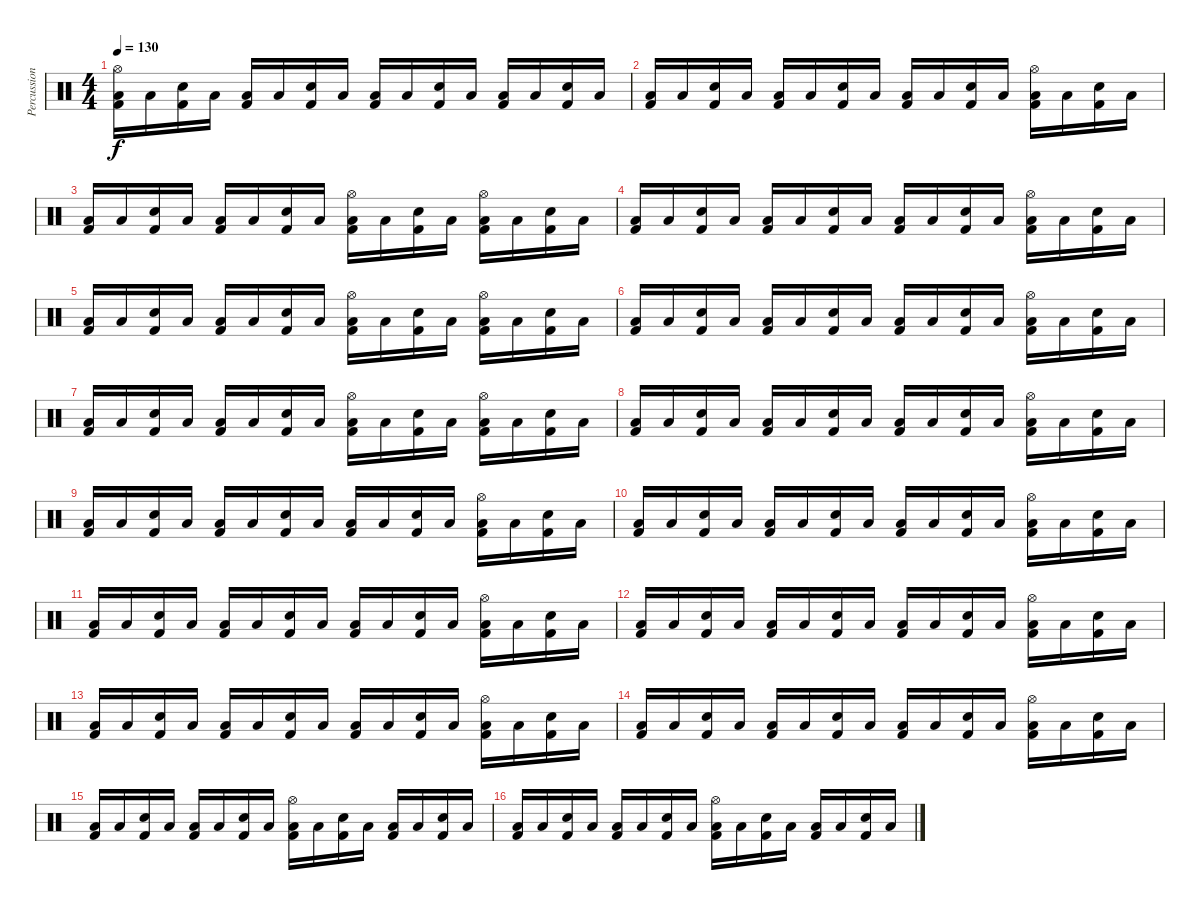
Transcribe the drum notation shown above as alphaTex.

\track ("Percussion" "Percussion") {instrument percussion}
\staff {score}
\articulation defaults
\ts (4 4)
\tempo 130
\clef neutral
\ks c
("Low Tom (hit)" "Kick (hit) 2" "Hi-Hat (open)").16{dy f} "Low Tom (hit)".16 ("Snare (hit) 2" "Kick (hit) 2").16 "Low Tom (hit)".16 ("Low Tom (hit)" "Kick (hit) 2").16 "Low Tom (hit)".16 ("Snare (hit) 2" "Kick (hit) 2").16 "Low Tom (hit)".16 ("Low Tom (hit)" "Kick (hit) 2").16 "Low Tom (hit)".16 ("Snare (hit) 2" "Kick (hit) 2").16 "Low Tom (hit)".16 ("Low Tom (hit)" "Kick (hit) 2").16 "Low Tom (hit)".16 ("Snare (hit) 2" "Kick (hit) 2").16 "Low Tom (hit)".16 |
("Low Tom (hit)" "Kick (hit) 2").16 "Low Tom (hit)".16 ("Snare (hit) 2" "Kick (hit) 2").16 "Low Tom (hit)".16 ("Low Tom (hit)" "Kick (hit) 2").16 "Low Tom (hit)".16 ("Snare (hit) 2" "Kick (hit) 2").16 "Low Tom (hit)".16 ("Low Tom (hit)" "Kick (hit) 2").16 "Low Tom (hit)".16 ("Snare (hit) 2" "Kick (hit) 2").16 "Low Tom (hit)".16 ("Low Tom (hit)" "Kick (hit) 2" "Hi-Hat (open)").16 "Low Tom (hit)".16 ("Snare (hit) 2" "Kick (hit) 2").16 "Low Tom (hit)".16 |
("Low Tom (hit)" "Kick (hit) 2").16 "Low Tom (hit)".16 ("Snare (hit) 2" "Kick (hit) 2").16 "Low Tom (hit)".16 ("Low Tom (hit)" "Kick (hit) 2").16 "Low Tom (hit)".16 ("Snare (hit) 2" "Kick (hit) 2").16 "Low Tom (hit)".16 ("Low Tom (hit)" "Kick (hit) 2" "Hi-Hat (open)").16 "Low Tom (hit)".16 ("Snare (hit) 2" "Kick (hit) 2").16 "Low Tom (hit)".16 ("Low Tom (hit)" "Kick (hit) 2" "Hi-Hat (open)").16 "Low Tom (hit)".16 ("Snare (hit) 2" "Kick (hit) 2").16 "Low Tom (hit)".16 |
("Low Tom (hit)" "Kick (hit) 2").16 "Low Tom (hit)".16 ("Snare (hit) 2" "Kick (hit) 2").16 "Low Tom (hit)".16 ("Low Tom (hit)" "Kick (hit) 2").16 "Low Tom (hit)".16 ("Snare (hit) 2" "Kick (hit) 2").16 "Low Tom (hit)".16 ("Low Tom (hit)" "Kick (hit) 2").16 "Low Tom (hit)".16 ("Snare (hit) 2" "Kick (hit) 2").16 "Low Tom (hit)".16 ("Low Tom (hit)" "Kick (hit) 2" "Hi-Hat (open)").16 "Low Tom (hit)".16 ("Snare (hit) 2" "Kick (hit) 2").16 "Low Tom (hit)".16 |
("Low Tom (hit)" "Kick (hit) 2").16 "Low Tom (hit)".16 ("Snare (hit) 2" "Kick (hit) 2").16 "Low Tom (hit)".16 ("Low Tom (hit)" "Kick (hit) 2").16 "Low Tom (hit)".16 ("Snare (hit) 2" "Kick (hit) 2").16 "Low Tom (hit)".16 ("Low Tom (hit)" "Kick (hit) 2" "Hi-Hat (open)").16 "Low Tom (hit)".16 ("Snare (hit) 2" "Kick (hit) 2").16 "Low Tom (hit)".16 ("Low Tom (hit)" "Kick (hit) 2" "Hi-Hat (open)").16 "Low Tom (hit)".16 ("Snare (hit) 2" "Kick (hit) 2").16 "Low Tom (hit)".16 |
("Low Tom (hit)" "Kick (hit) 2").16 "Low Tom (hit)".16 ("Snare (hit) 2" "Kick (hit) 2").16 "Low Tom (hit)".16 ("Low Tom (hit)" "Kick (hit) 2").16 "Low Tom (hit)".16 ("Snare (hit) 2" "Kick (hit) 2").16 "Low Tom (hit)".16 ("Low Tom (hit)" "Kick (hit) 2").16 "Low Tom (hit)".16 ("Snare (hit) 2" "Kick (hit) 2").16 "Low Tom (hit)".16 ("Low Tom (hit)" "Kick (hit) 2" "Hi-Hat (open)").16 "Low Tom (hit)".16 ("Snare (hit) 2" "Kick (hit) 2").16 "Low Tom (hit)".16 |
("Low Tom (hit)" "Kick (hit) 2").16 "Low Tom (hit)".16 ("Snare (hit) 2" "Kick (hit) 2").16 "Low Tom (hit)".16 ("Low Tom (hit)" "Kick (hit) 2").16 "Low Tom (hit)".16 ("Snare (hit) 2" "Kick (hit) 2").16 "Low Tom (hit)".16 ("Low Tom (hit)" "Kick (hit) 2" "Hi-Hat (open)").16 "Low Tom (hit)".16 ("Snare (hit) 2" "Kick (hit) 2").16 "Low Tom (hit)".16 ("Low Tom (hit)" "Kick (hit) 2" "Hi-Hat (open)").16 "Low Tom (hit)".16 ("Snare (hit) 2" "Kick (hit) 2").16 "Low Tom (hit)".16 |
("Low Tom (hit)" "Kick (hit) 2").16 "Low Tom (hit)".16 ("Snare (hit) 2" "Kick (hit) 2").16 "Low Tom (hit)".16 ("Low Tom (hit)" "Kick (hit) 2").16 "Low Tom (hit)".16 ("Snare (hit) 2" "Kick (hit) 2").16 "Low Tom (hit)".16 ("Low Tom (hit)" "Kick (hit) 2").16 "Low Tom (hit)".16 ("Snare (hit) 2" "Kick (hit) 2").16 "Low Tom (hit)".16 ("Low Tom (hit)" "Kick (hit) 2" "Hi-Hat (open)").16 "Low Tom (hit)".16 ("Snare (hit) 2" "Kick (hit) 2").16 "Low Tom (hit)".16 |
("Low Tom (hit)" "Kick (hit) 2").16 "Low Tom (hit)".16 ("Snare (hit) 2" "Kick (hit) 2").16 "Low Tom (hit)".16 ("Low Tom (hit)" "Kick (hit) 2").16 "Low Tom (hit)".16 ("Snare (hit) 2" "Kick (hit) 2").16 "Low Tom (hit)".16 ("Low Tom (hit)" "Kick (hit) 2").16 "Low Tom (hit)".16 ("Snare (hit) 2" "Kick (hit) 2").16 "Low Tom (hit)".16 ("Low Tom (hit)" "Kick (hit) 2" "Hi-Hat (open)").16 "Low Tom (hit)".16 ("Snare (hit) 2" "Kick (hit) 2").16 "Low Tom (hit)".16 |
("Low Tom (hit)" "Kick (hit) 2").16 "Low Tom (hit)".16 ("Snare (hit) 2" "Kick (hit) 2").16 "Low Tom (hit)".16 ("Low Tom (hit)" "Kick (hit) 2").16 "Low Tom (hit)".16 ("Snare (hit) 2" "Kick (hit) 2").16 "Low Tom (hit)".16 ("Low Tom (hit)" "Kick (hit) 2").16 "Low Tom (hit)".16 ("Snare (hit) 2" "Kick (hit) 2").16 "Low Tom (hit)".16 ("Low Tom (hit)" "Kick (hit) 2" "Hi-Hat (open)").16 "Low Tom (hit)".16 ("Snare (hit) 2" "Kick (hit) 2").16 "Low Tom (hit)".16 |
("Low Tom (hit)" "Kick (hit) 2").16 "Low Tom (hit)".16 ("Snare (hit) 2" "Kick (hit) 2").16 "Low Tom (hit)".16 ("Low Tom (hit)" "Kick (hit) 2").16 "Low Tom (hit)".16 ("Snare (hit) 2" "Kick (hit) 2").16 "Low Tom (hit)".16 ("Low Tom (hit)" "Kick (hit) 2").16 "Low Tom (hit)".16 ("Snare (hit) 2" "Kick (hit) 2").16 "Low Tom (hit)".16 ("Low Tom (hit)" "Kick (hit) 2" "Hi-Hat (open)").16 "Low Tom (hit)".16 ("Snare (hit) 2" "Kick (hit) 2").16 "Low Tom (hit)".16 |
("Low Tom (hit)" "Kick (hit) 2").16 "Low Tom (hit)".16 ("Snare (hit) 2" "Kick (hit) 2").16 "Low Tom (hit)".16 ("Low Tom (hit)" "Kick (hit) 2").16 "Low Tom (hit)".16 ("Snare (hit) 2" "Kick (hit) 2").16 "Low Tom (hit)".16 ("Low Tom (hit)" "Kick (hit) 2").16 "Low Tom (hit)".16 ("Snare (hit) 2" "Kick (hit) 2").16 "Low Tom (hit)".16 ("Low Tom (hit)" "Kick (hit) 2" "Hi-Hat (open)").16 "Low Tom (hit)".16 ("Snare (hit) 2" "Kick (hit) 2").16 "Low Tom (hit)".16 |
("Low Tom (hit)" "Kick (hit) 2").16 "Low Tom (hit)".16 ("Snare (hit) 2" "Kick (hit) 2").16 "Low Tom (hit)".16 ("Low Tom (hit)" "Kick (hit) 2").16 "Low Tom (hit)".16 ("Snare (hit) 2" "Kick (hit) 2").16 "Low Tom (hit)".16 ("Low Tom (hit)" "Kick (hit) 2").16 "Low Tom (hit)".16 ("Snare (hit) 2" "Kick (hit) 2").16 "Low Tom (hit)".16 ("Low Tom (hit)" "Kick (hit) 2" "Hi-Hat (open)").16 "Low Tom (hit)".16 ("Snare (hit) 2" "Kick (hit) 2").16 "Low Tom (hit)".16 |
("Low Tom (hit)" "Kick (hit) 2").16 "Low Tom (hit)".16 ("Snare (hit) 2" "Kick (hit) 2").16 "Low Tom (hit)".16 ("Low Tom (hit)" "Kick (hit) 2").16 "Low Tom (hit)".16 ("Snare (hit) 2" "Kick (hit) 2").16 "Low Tom (hit)".16 ("Low Tom (hit)" "Kick (hit) 2").16 "Low Tom (hit)".16 ("Snare (hit) 2" "Kick (hit) 2").16 "Low Tom (hit)".16 ("Low Tom (hit)" "Kick (hit) 2" "Hi-Hat (open)").16 "Low Tom (hit)".16 ("Snare (hit) 2" "Kick (hit) 2").16 "Low Tom (hit)".16 |
("Low Tom (hit)" "Kick (hit) 2").16 "Low Tom (hit)".16 ("Snare (hit) 2" "Kick (hit) 2").16 "Low Tom (hit)".16 ("Low Tom (hit)" "Kick (hit) 2").16 "Low Tom (hit)".16 ("Snare (hit) 2" "Kick (hit) 2").16 "Low Tom (hit)".16 ("Low Tom (hit)" "Kick (hit) 2" "Hi-Hat (open)").16 "Low Tom (hit)".16 ("Snare (hit) 2" "Kick (hit) 2").16 "Low Tom (hit)".16 ("Low Tom (hit)" "Kick (hit) 2").16 "Low Tom (hit)".16 ("Snare (hit) 2" "Kick (hit) 2").16 "Low Tom (hit)".16 |
("Low Tom (hit)" "Kick (hit) 2").16 "Low Tom (hit)".16 ("Snare (hit) 2" "Kick (hit) 2").16 "Low Tom (hit)".16 ("Low Tom (hit)" "Kick (hit) 2").16 "Low Tom (hit)".16 ("Snare (hit) 2" "Kick (hit) 2").16 "Low Tom (hit)".16 ("Low Tom (hit)" "Kick (hit) 2" "Hi-Hat (open)").16 "Low Tom (hit)".16 ("Snare (hit) 2" "Kick (hit) 2").16 "Low Tom (hit)".16 ("Low Tom (hit)" "Kick (hit) 2").16 "Low Tom (hit)".16 ("Snare (hit) 2" "Kick (hit) 2").16 "Low Tom (hit)".16
